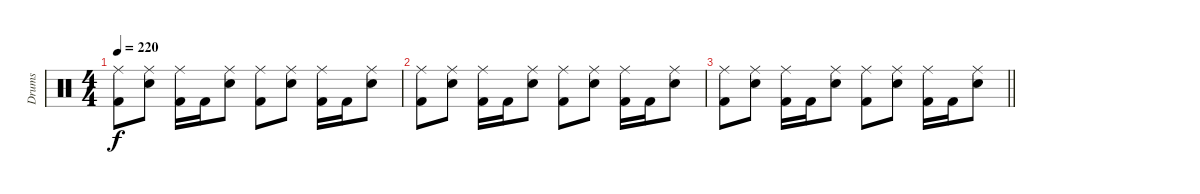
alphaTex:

\track ("Drums" "Drums") {instrument percussion}
\staff {score}
\articulation defaults
\ts (4 4)
\tempo 220
\clef neutral
\ks c
("Ride (middle)" "Kick (hit) 2").8{dy f} ("Ride (middle)" "Snare (hit) 2").8 ("Ride (middle)" "Kick (hit) 2").16 "Kick (hit) 2".16 ("Ride (middle)" "Snare (hit) 2").8 ("Ride (middle)" "Kick (hit) 2").8 ("Ride (middle)" "Snare (hit) 2").8 ("Ride (middle)" "Kick (hit) 2").16 "Kick (hit) 2".16 ("Ride (middle)" "Snare (hit) 2").8 |
("Ride (middle)" "Kick (hit) 2").8 ("Ride (middle)" "Snare (hit) 2").8 ("Ride (middle)" "Kick (hit) 2").16 "Kick (hit) 2".16 ("Ride (middle)" "Snare (hit) 2").8 ("Ride (middle)" "Kick (hit) 2").8 ("Ride (middle)" "Snare (hit) 2").8 ("Ride (middle)" "Kick (hit) 2").16 "Kick (hit) 2".16 ("Ride (middle)" "Snare (hit) 2").8 |
\barLineRight lightlight
("Ride (middle)" "Kick (hit) 2").8 ("Ride (middle)" "Snare (hit) 2").8 ("Ride (middle)" "Kick (hit) 2").16 "Kick (hit) 2".16 ("Ride (middle)" "Snare (hit) 2").8 ("Ride (middle)" "Kick (hit) 2").8 ("Ride (middle)" "Snare (hit) 2").8 ("Ride (middle)" "Kick (hit) 2").16 "Kick (hit) 2".16 ("Ride (middle)" "Snare (hit) 2").8
